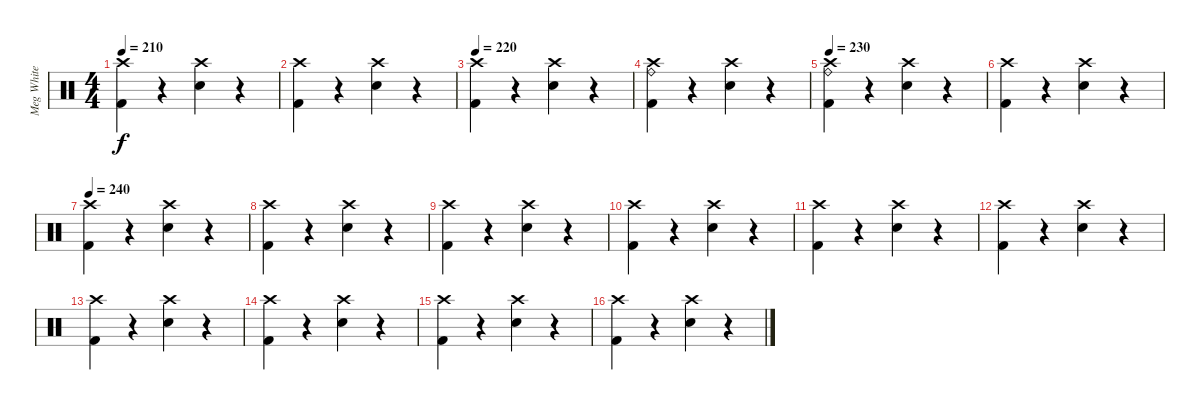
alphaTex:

\track ("Meg White" "Meg White") {instrument percussion}
\staff {score}
\articulation defaults
\ts (4 4)
\tempo 210
\clef neutral
\ks c
("Crash high (hit)" "Kick (hit) 2").4{dy f} r.4 ("Crash high (hit)" "Snare (hit) 2").4 r.4 |
("Crash high (hit)" "Kick (hit) 2").4 r.4 ("Crash high (hit)" "Snare (hit) 2").4 r.4 |
\tempo 220
("Crash high (hit)" "Kick (hit) 2").4 r.4 ("Crash high (hit)" "Snare (hit) 2").4 r.4 |
("Crash high (hit)" "Ride (bell)" "Kick (hit) 2").4 r.4 ("Crash high (hit)" "Snare (hit) 2").4 r.4 |
\tempo 230
("Crash high (hit)" "Ride (bell)" "Kick (hit) 2").4 r.4 ("Crash high (hit)" "Snare (hit) 2").4 r.4 |
("Crash high (hit)" "Kick (hit) 2").4 r.4 ("Crash high (hit)" "Snare (hit) 2").4 r.4 |
\tempo 240
("Crash high (hit)" "Kick (hit) 2").4 r.4 ("Crash high (hit)" "Snare (hit) 2").4 r.4 |
("Crash high (hit)" "Kick (hit) 2").4 r.4 ("Crash high (hit)" "Snare (hit) 2").4 r.4 |
("Crash high (hit)" "Kick (hit) 2").4 r.4 ("Crash high (hit)" "Snare (hit) 2").4 r.4 |
("Crash high (hit)" "Kick (hit) 2").4 r.4 ("Crash high (hit)" "Snare (hit) 2").4 r.4 |
("Crash high (hit)" "Kick (hit) 2").4 r.4 ("Crash high (hit)" "Snare (hit) 2").4 r.4 |
("Crash high (hit)" "Kick (hit) 2").4 r.4 ("Crash high (hit)" "Snare (hit) 2").4 r.4 |
("Crash high (hit)" "Kick (hit) 2").4 r.4 ("Crash high (hit)" "Snare (hit) 2").4 r.4 |
("Crash high (hit)" "Kick (hit) 2").4 r.4 ("Crash high (hit)" "Snare (hit) 2").4 r.4 |
("Crash high (hit)" "Kick (hit) 2").4 r.4 ("Crash high (hit)" "Snare (hit) 2").4 r.4 |
("Crash high (hit)" "Kick (hit) 2").4 r.4 ("Crash high (hit)" "Snare (hit) 2").4 r.4
